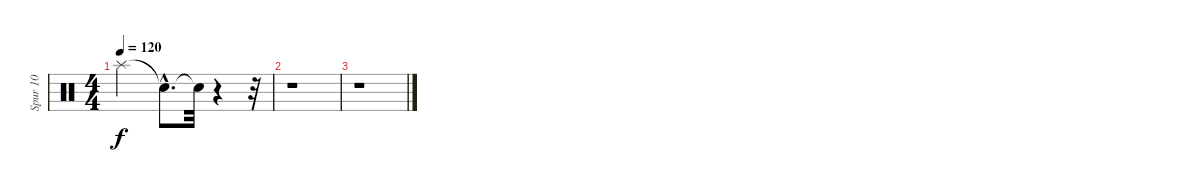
\track ("Spur 10" "Spur 10") {instrument percussion}
\staff {score}
\articulation defaults
\ts (4 4)
\tempo 120
\clef neutral
\ks c "Splash (hit)".2{dy f} "Snare (hit)"{hac t}.8{d} "Snare (hit)"{t}.32
r.4 r.32 |
r.1 |
r.1
